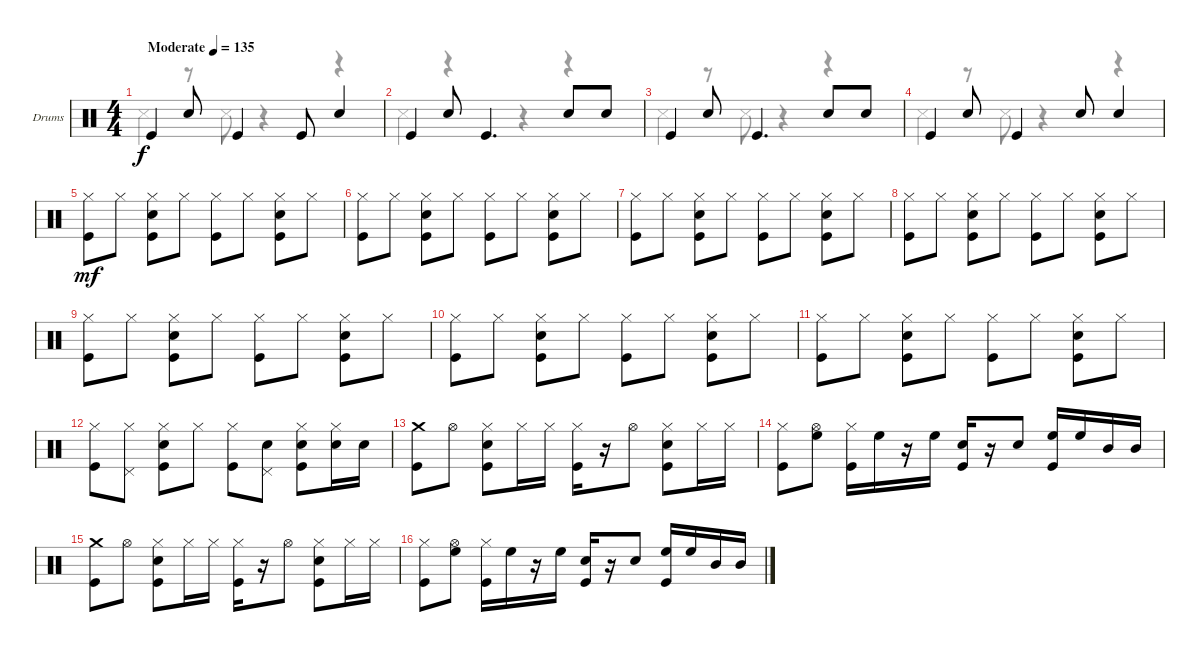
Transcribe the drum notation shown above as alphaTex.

\bracketExtendMode groupsimilarinstruments
\firstSystemTrackNameOrientation horizontal
\otherSystemsTrackNameOrientation horizontal
\track ("Drumkit" "Drums") {instrument percussion}
\staff {score}
\articulation defaults
\voice
\ts (4 4)
\beaming (8 2 2 2 2)
\tempo (135 "Moderate")
\clef neutral
\ks c "Kick (hit)".4{dy f} "Snare (hit) 2".8 "Kick (hit)".4 "Kick (hit)".8 "Snare (hit) 2".4
|
"Kick (hit)".4 "Snare (hit) 2".8 "Kick (hit)".4{d} "Snare (hit) 2".8 "Snare (hit) 2".8 |
"Kick (hit)".4 "Snare (hit) 2".8 "Kick (hit)".4{d} "Snare (hit) 2".8 "Snare (hit) 2".8 |
"Kick (hit)".4 "Snare (hit) 2".8 "Kick (hit)".4 "Snare (hit) 2".8 "Snare (hit) 2".4 |
("Kick (hit)" "Hi-Hat (closed)").8{dy mf} "Hi-Hat (closed)".8 ("Snare (hit) 2" "Hi-Hat (closed)" "Kick (hit)").8 "Hi-Hat (closed)".8 ("Hi-Hat (closed)" "Kick (hit)").8 "Hi-Hat (closed)".8 ("Snare (hit) 2" "Hi-Hat (closed)" "Kick (hit)").8 "Hi-Hat (closed)".8 |
("Hi-Hat (closed)" "Kick (hit)").8 "Hi-Hat (closed)".8 ("Snare (hit) 2" "Hi-Hat (closed)" "Kick (hit)").8 "Hi-Hat (closed)".8 ("Hi-Hat (closed)" "Kick (hit)").8 "Hi-Hat (closed)".8 ("Snare (hit) 2" "Hi-Hat (closed)" "Kick (hit)").8 "Hi-Hat (closed)".8 |
("Kick (hit)" "Hi-Hat (closed)").8 "Hi-Hat (closed)".8 ("Snare (hit) 2" "Kick (hit)" "Hi-Hat (closed)").8 "Hi-Hat (closed)".8 ("Hi-Hat (closed)" "Kick (hit)").8 "Hi-Hat (closed)".8 ("Snare (hit) 2" "Hi-Hat (closed)" "Kick (hit)").8 "Hi-Hat (closed)".8 |
("Hi-Hat (closed)" "Kick (hit)").8 "Hi-Hat (closed)".8 ("Snare (hit) 2" "Hi-Hat (closed)" "Kick (hit)").8 "Hi-Hat (closed)".8 ("Hi-Hat (closed)" "Kick (hit)").8 "Hi-Hat (closed)".8 ("Snare (hit) 2" "Hi-Hat (closed)" "Kick (hit)").8 "Hi-Hat (closed)".8 |
("Kick (hit)" "Hi-Hat (closed)").8 "Hi-Hat (closed)".8 ("Snare (hit) 2" "Hi-Hat (closed)" "Kick (hit)").8 "Hi-Hat (closed)".8 ("Hi-Hat (closed)" "Kick (hit)").8 "Hi-Hat (closed)".8 ("Snare (hit) 2" "Hi-Hat (closed)" "Kick (hit)").8 "Hi-Hat (closed)".8 |
("Kick (hit)" "Hi-Hat (closed)").8 "Hi-Hat (closed)".8 ("Snare (hit) 2" "Kick (hit)" "Hi-Hat (closed)").8 "Hi-Hat (closed)".8 ("Hi-Hat (closed)" "Kick (hit)").8 "Hi-Hat (closed)".8 ("Snare (hit) 2" "Hi-Hat (closed)" "Kick (hit)").8 "Hi-Hat (closed)".8 |
("Kick (hit)" "Hi-Hat (closed)").8 "Hi-Hat (closed)".8 ("Hi-Hat (closed)" "Kick (hit)" "Snare (hit) 2").8 "Hi-Hat (closed)".8 ("Hi-Hat (closed)" "Kick (hit)").8 "Hi-Hat (closed)".8 ("Snare (hit) 2" "Hi-Hat (closed)" "Kick (hit)").8 "Hi-Hat (closed)".8 |
("Kick (hit)" "Hi-Hat (closed)").8 ("Pedal Hi-Hat (hit)" "Hi-Hat (closed)").8 ("Snare (hit) 2" "Kick (hit)" "Hi-Hat (closed)").8 "Hi-Hat (closed)".8 ("Kick (hit)" "Hi-Hat (closed)").8 ("Snare (hit) 2" "Pedal Hi-Hat (hit)").8 ("Kick (hit)" "Snare (hit) 2" "Hi-Hat (closed)").8 ("Hi-Hat (closed)" "Snare (hit) 2").16 "Snare (hit) 2".16 |
("Crash medium (hit)" "Kick (hit)").8 "Hi-Hat (open)".8 ("Snare (hit) 2" "Hi-Hat (closed)" "Kick (hit)").8 "Hi-Hat (closed)".16 "Hi-Hat (closed)".16 ("Kick (hit)" "Hi-Hat (closed)").16 r.16 "Hi-Hat (open)".8 ("Hi-Hat (closed)" "Kick (hit)" "Snare (hit) 2").8 "Hi-Hat (closed)".16 "Hi-Hat (closed)".16 |
("Kick (hit)" "Hi-Hat (closed)").8 ("Hi-Hat (open)" "High Floor Tom (hit)").8 ("Hi-Hat (closed)" "Kick (hit)").16 "High Floor Tom (hit)".16 r.16 "High Floor Tom (hit)".16 ("Snare (hit) 2" "Kick (hit)").16 r.16 "Snare (hit) 2".8 ("Kick (hit)" "High Floor Tom (hit)").16 "High Floor Tom (hit)".16 "Mid Tom (hit)".16 "Mid Tom (hit)".16 |
("Kick (hit)" "Crash medium (hit)").8 "Hi-Hat (open)".8 ("Kick (hit)" "Hi-Hat (closed)" "Snare (hit) 2").8 "Hi-Hat (closed)".16 "Hi-Hat (closed)".16 ("Kick (hit)" "Hi-Hat (closed)").16 r.16 "Hi-Hat (open)".8 ("Snare (hit) 2" "Hi-Hat (closed)" "Kick (hit)").8 "Hi-Hat (closed)".16 "Hi-Hat (closed)".16 |
("Hi-Hat (closed)" "Kick (hit)").8 ("High Floor Tom (hit)" "Hi-Hat (open)").8 ("Hi-Hat (closed)" "Kick (hit)").16 "High Floor Tom (hit)".16 r.16 "High Floor Tom (hit)".16 ("Snare (hit) 2" "Kick (hit)").16 r.16 "Snare (hit) 2".8 ("High Floor Tom (hit)" "Kick (hit)").16 "High Floor Tom (hit)".16 "Mid Tom (hit)".16 "Mid Tom (hit)".16
\voice
\clef neutral
\ottava regular
\simile none
\ks c "Snare (side stick) 3".4{dy f}
r.8 "Snare (side stick) 3".8 r.4 r.4 |
"Snare (side stick) 3".4 r.4 r.4 r.4 |
"Snare (side stick) 3".4 r.8 "Snare (side stick) 3".8 r.4 r.4 |
"Snare (side stick) 3".4 r.8 "Snare (side stick) 3".8 r.4 r.4 |
|
|
|
|
|
|
|
|
|
|
|
